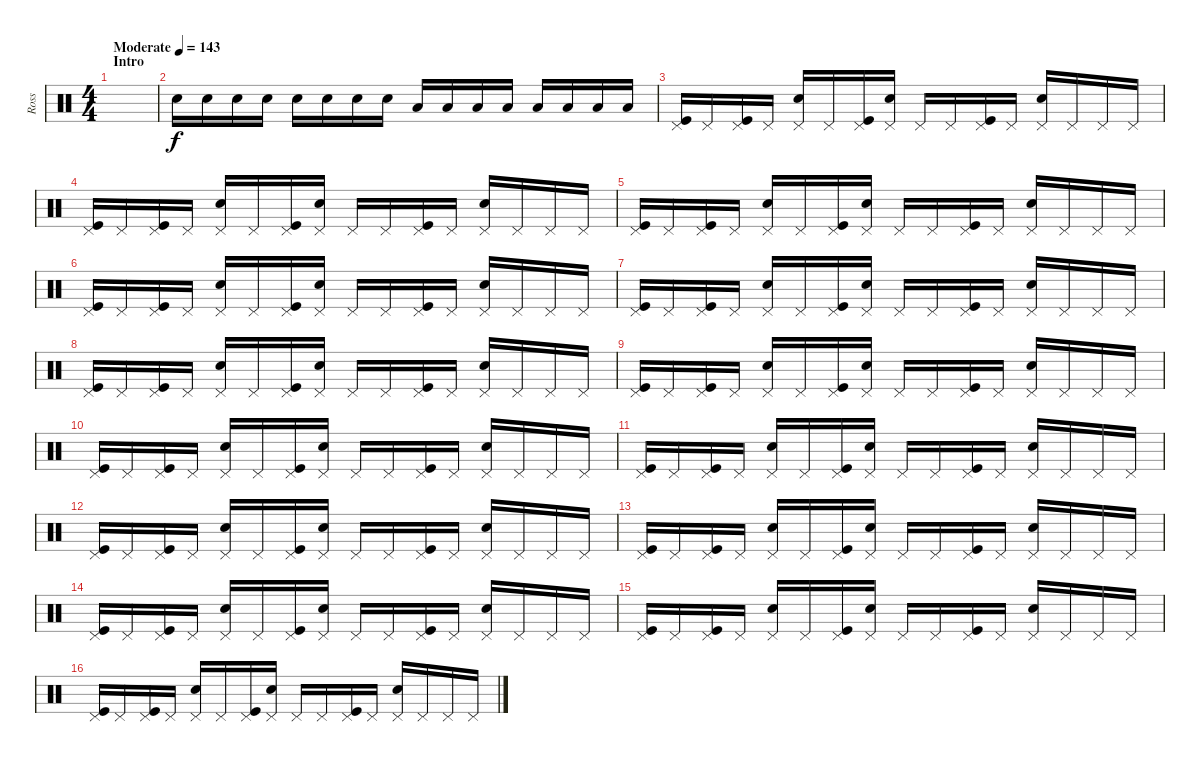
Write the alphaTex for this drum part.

\track ("Ross" "Ross") {instrument percussion}
\staff {score}
\articulation defaults
\ts (4 4)
\section ("" "Intro")
\tempo (143 "Moderate")
\clef neutral
\ks c
|
"Snare (hit) 2".16 "Snare (hit) 2".16 "Snare (hit) 2".16 "Snare (hit) 2".16 "Snare (hit) 2".16 "Snare (hit) 2".16 "Snare (hit) 2".16 "Snare (hit) 2".16 "Low Tom (hit)".16 "Low Tom (hit)".16 "Low Tom (hit)".16 "Low Tom (hit)".16 "Low Tom (hit)".16 "Low Tom (hit)".16 "Low Tom (hit)".16 "Low Tom (hit)".16 |
("Pedal Hi-Hat (hit)" "Kick (hit)").16 "Pedal Hi-Hat (hit)".16 ("Pedal Hi-Hat (hit)" "Kick (hit)").16 "Pedal Hi-Hat (hit)".16 ("Pedal Hi-Hat (hit)" "Snare (hit) 2").16 "Pedal Hi-Hat (hit)".16 ("Pedal Hi-Hat (hit)" "Kick (hit)").16 ("Pedal Hi-Hat (hit)" "Snare (hit) 2").16 "Pedal Hi-Hat (hit)".16 "Pedal Hi-Hat (hit)".16 ("Pedal Hi-Hat (hit)" "Kick (hit)").16 "Pedal Hi-Hat (hit)".16 ("Pedal Hi-Hat (hit)" "Snare (hit) 2").16 "Pedal Hi-Hat (hit)".16 "Pedal Hi-Hat (hit)".16 "Pedal Hi-Hat (hit)".16 |
("Pedal Hi-Hat (hit)" "Kick (hit)").16 "Pedal Hi-Hat (hit)".16 ("Pedal Hi-Hat (hit)" "Kick (hit)").16 "Pedal Hi-Hat (hit)".16 ("Pedal Hi-Hat (hit)" "Snare (hit) 2").16 "Pedal Hi-Hat (hit)".16 ("Pedal Hi-Hat (hit)" "Kick (hit)").16 ("Pedal Hi-Hat (hit)" "Snare (hit) 2").16 "Pedal Hi-Hat (hit)".16 "Pedal Hi-Hat (hit)".16 ("Pedal Hi-Hat (hit)" "Kick (hit)").16 "Pedal Hi-Hat (hit)".16 ("Pedal Hi-Hat (hit)" "Snare (hit) 2").16 "Pedal Hi-Hat (hit)".16 "Pedal Hi-Hat (hit)".16 "Pedal Hi-Hat (hit)".16 |
("Pedal Hi-Hat (hit)" "Kick (hit)").16 "Pedal Hi-Hat (hit)".16 ("Pedal Hi-Hat (hit)" "Kick (hit)").16 "Pedal Hi-Hat (hit)".16 ("Pedal Hi-Hat (hit)" "Snare (hit) 2").16 "Pedal Hi-Hat (hit)".16 ("Pedal Hi-Hat (hit)" "Kick (hit)").16 ("Pedal Hi-Hat (hit)" "Snare (hit) 2").16 "Pedal Hi-Hat (hit)".16 "Pedal Hi-Hat (hit)".16 ("Pedal Hi-Hat (hit)" "Kick (hit)").16 "Pedal Hi-Hat (hit)".16 ("Pedal Hi-Hat (hit)" "Snare (hit) 2").16 "Pedal Hi-Hat (hit)".16 "Pedal Hi-Hat (hit)".16 "Pedal Hi-Hat (hit)".16 |
("Pedal Hi-Hat (hit)" "Kick (hit)").16 "Pedal Hi-Hat (hit)".16 ("Pedal Hi-Hat (hit)" "Kick (hit)").16 "Pedal Hi-Hat (hit)".16 ("Pedal Hi-Hat (hit)" "Snare (hit) 2").16 "Pedal Hi-Hat (hit)".16 ("Pedal Hi-Hat (hit)" "Kick (hit)").16 ("Pedal Hi-Hat (hit)" "Snare (hit) 2").16 "Pedal Hi-Hat (hit)".16 "Pedal Hi-Hat (hit)".16 ("Pedal Hi-Hat (hit)" "Kick (hit)").16 "Pedal Hi-Hat (hit)".16 ("Pedal Hi-Hat (hit)" "Snare (hit) 2").16 "Pedal Hi-Hat (hit)".16 "Pedal Hi-Hat (hit)".16 "Pedal Hi-Hat (hit)".16 |
("Pedal Hi-Hat (hit)" "Kick (hit)").16 "Pedal Hi-Hat (hit)".16 ("Pedal Hi-Hat (hit)" "Kick (hit)").16 "Pedal Hi-Hat (hit)".16 ("Pedal Hi-Hat (hit)" "Snare (hit) 2").16 "Pedal Hi-Hat (hit)".16 ("Pedal Hi-Hat (hit)" "Kick (hit)").16 ("Pedal Hi-Hat (hit)" "Snare (hit) 2").16 "Pedal Hi-Hat (hit)".16 "Pedal Hi-Hat (hit)".16 ("Pedal Hi-Hat (hit)" "Kick (hit)").16 "Pedal Hi-Hat (hit)".16 ("Pedal Hi-Hat (hit)" "Snare (hit) 2").16 "Pedal Hi-Hat (hit)".16 "Pedal Hi-Hat (hit)".16 "Pedal Hi-Hat (hit)".16 |
("Pedal Hi-Hat (hit)" "Kick (hit)").16 "Pedal Hi-Hat (hit)".16 ("Pedal Hi-Hat (hit)" "Kick (hit)").16 "Pedal Hi-Hat (hit)".16 ("Pedal Hi-Hat (hit)" "Snare (hit) 2").16 "Pedal Hi-Hat (hit)".16 ("Pedal Hi-Hat (hit)" "Kick (hit)").16 ("Pedal Hi-Hat (hit)" "Snare (hit) 2").16 "Pedal Hi-Hat (hit)".16 "Pedal Hi-Hat (hit)".16 ("Pedal Hi-Hat (hit)" "Kick (hit)").16 "Pedal Hi-Hat (hit)".16 ("Pedal Hi-Hat (hit)" "Snare (hit) 2").16 "Pedal Hi-Hat (hit)".16 "Pedal Hi-Hat (hit)".16 "Pedal Hi-Hat (hit)".16 |
("Pedal Hi-Hat (hit)" "Kick (hit)").16 "Pedal Hi-Hat (hit)".16 ("Pedal Hi-Hat (hit)" "Kick (hit)").16 "Pedal Hi-Hat (hit)".16 ("Pedal Hi-Hat (hit)" "Snare (hit) 2").16 "Pedal Hi-Hat (hit)".16 ("Pedal Hi-Hat (hit)" "Kick (hit)").16 ("Pedal Hi-Hat (hit)" "Snare (hit) 2").16 "Pedal Hi-Hat (hit)".16 "Pedal Hi-Hat (hit)".16 ("Pedal Hi-Hat (hit)" "Kick (hit)").16 "Pedal Hi-Hat (hit)".16 ("Pedal Hi-Hat (hit)" "Snare (hit) 2").16 "Pedal Hi-Hat (hit)".16 "Pedal Hi-Hat (hit)".16 "Pedal Hi-Hat (hit)".16 |
("Pedal Hi-Hat (hit)" "Kick (hit)").16 "Pedal Hi-Hat (hit)".16 ("Pedal Hi-Hat (hit)" "Kick (hit)").16 "Pedal Hi-Hat (hit)".16 ("Pedal Hi-Hat (hit)" "Snare (hit) 2").16 "Pedal Hi-Hat (hit)".16 ("Pedal Hi-Hat (hit)" "Kick (hit)").16 ("Pedal Hi-Hat (hit)" "Snare (hit) 2").16 "Pedal Hi-Hat (hit)".16 "Pedal Hi-Hat (hit)".16 ("Pedal Hi-Hat (hit)" "Kick (hit)").16 "Pedal Hi-Hat (hit)".16 ("Pedal Hi-Hat (hit)" "Snare (hit) 2").16 "Pedal Hi-Hat (hit)".16 "Pedal Hi-Hat (hit)".16 "Pedal Hi-Hat (hit)".16 |
("Pedal Hi-Hat (hit)" "Kick (hit)").16 "Pedal Hi-Hat (hit)".16 ("Pedal Hi-Hat (hit)" "Kick (hit)").16 "Pedal Hi-Hat (hit)".16 ("Pedal Hi-Hat (hit)" "Snare (hit) 2").16 "Pedal Hi-Hat (hit)".16 ("Pedal Hi-Hat (hit)" "Kick (hit)").16 ("Pedal Hi-Hat (hit)" "Snare (hit) 2").16 "Pedal Hi-Hat (hit)".16 "Pedal Hi-Hat (hit)".16 ("Pedal Hi-Hat (hit)" "Kick (hit)").16 "Pedal Hi-Hat (hit)".16 ("Pedal Hi-Hat (hit)" "Snare (hit) 2").16 "Pedal Hi-Hat (hit)".16 "Pedal Hi-Hat (hit)".16 "Pedal Hi-Hat (hit)".16 |
("Pedal Hi-Hat (hit)" "Kick (hit)").16 "Pedal Hi-Hat (hit)".16 ("Pedal Hi-Hat (hit)" "Kick (hit)").16 "Pedal Hi-Hat (hit)".16 ("Pedal Hi-Hat (hit)" "Snare (hit) 2").16 "Pedal Hi-Hat (hit)".16 ("Pedal Hi-Hat (hit)" "Kick (hit)").16 ("Pedal Hi-Hat (hit)" "Snare (hit) 2").16 "Pedal Hi-Hat (hit)".16 "Pedal Hi-Hat (hit)".16 ("Pedal Hi-Hat (hit)" "Kick (hit)").16 "Pedal Hi-Hat (hit)".16 ("Pedal Hi-Hat (hit)" "Snare (hit) 2").16 "Pedal Hi-Hat (hit)".16 "Pedal Hi-Hat (hit)".16 "Pedal Hi-Hat (hit)".16 |
("Pedal Hi-Hat (hit)" "Kick (hit)").16 "Pedal Hi-Hat (hit)".16 ("Pedal Hi-Hat (hit)" "Kick (hit)").16 "Pedal Hi-Hat (hit)".16 ("Pedal Hi-Hat (hit)" "Snare (hit) 2").16 "Pedal Hi-Hat (hit)".16 ("Pedal Hi-Hat (hit)" "Kick (hit)").16 ("Pedal Hi-Hat (hit)" "Snare (hit) 2").16 "Pedal Hi-Hat (hit)".16 "Pedal Hi-Hat (hit)".16 ("Pedal Hi-Hat (hit)" "Kick (hit)").16 "Pedal Hi-Hat (hit)".16 ("Pedal Hi-Hat (hit)" "Snare (hit) 2").16 "Pedal Hi-Hat (hit)".16 "Pedal Hi-Hat (hit)".16 "Pedal Hi-Hat (hit)".16 |
("Pedal Hi-Hat (hit)" "Kick (hit)").16 "Pedal Hi-Hat (hit)".16 ("Pedal Hi-Hat (hit)" "Kick (hit)").16 "Pedal Hi-Hat (hit)".16 ("Pedal Hi-Hat (hit)" "Snare (hit) 2").16 "Pedal Hi-Hat (hit)".16 ("Pedal Hi-Hat (hit)" "Kick (hit)").16 ("Pedal Hi-Hat (hit)" "Snare (hit) 2").16 "Pedal Hi-Hat (hit)".16 "Pedal Hi-Hat (hit)".16 ("Pedal Hi-Hat (hit)" "Kick (hit)").16 "Pedal Hi-Hat (hit)".16 ("Pedal Hi-Hat (hit)" "Snare (hit) 2").16 "Pedal Hi-Hat (hit)".16 "Pedal Hi-Hat (hit)".16 "Pedal Hi-Hat (hit)".16 |
("Pedal Hi-Hat (hit)" "Kick (hit)").16 "Pedal Hi-Hat (hit)".16 ("Pedal Hi-Hat (hit)" "Kick (hit)").16 "Pedal Hi-Hat (hit)".16 ("Pedal Hi-Hat (hit)" "Snare (hit) 2").16 "Pedal Hi-Hat (hit)".16 ("Pedal Hi-Hat (hit)" "Kick (hit)").16 ("Pedal Hi-Hat (hit)" "Snare (hit) 2").16 "Pedal Hi-Hat (hit)".16 "Pedal Hi-Hat (hit)".16 ("Pedal Hi-Hat (hit)" "Kick (hit)").16 "Pedal Hi-Hat (hit)".16 ("Pedal Hi-Hat (hit)" "Snare (hit) 2").16 "Pedal Hi-Hat (hit)".16 "Pedal Hi-Hat (hit)".16 "Pedal Hi-Hat (hit)".16 |
("Pedal Hi-Hat (hit)" "Kick (hit)").16 "Pedal Hi-Hat (hit)".16 ("Pedal Hi-Hat (hit)" "Kick (hit)").16 "Pedal Hi-Hat (hit)".16 ("Pedal Hi-Hat (hit)" "Snare (hit) 2").16 "Pedal Hi-Hat (hit)".16 ("Pedal Hi-Hat (hit)" "Kick (hit)").16 ("Pedal Hi-Hat (hit)" "Snare (hit) 2").16 "Pedal Hi-Hat (hit)".16 "Pedal Hi-Hat (hit)".16 ("Pedal Hi-Hat (hit)" "Kick (hit)").16 "Pedal Hi-Hat (hit)".16 ("Pedal Hi-Hat (hit)" "Snare (hit) 2").16 "Pedal Hi-Hat (hit)".16 "Pedal Hi-Hat (hit)".16 "Pedal Hi-Hat (hit)".16
